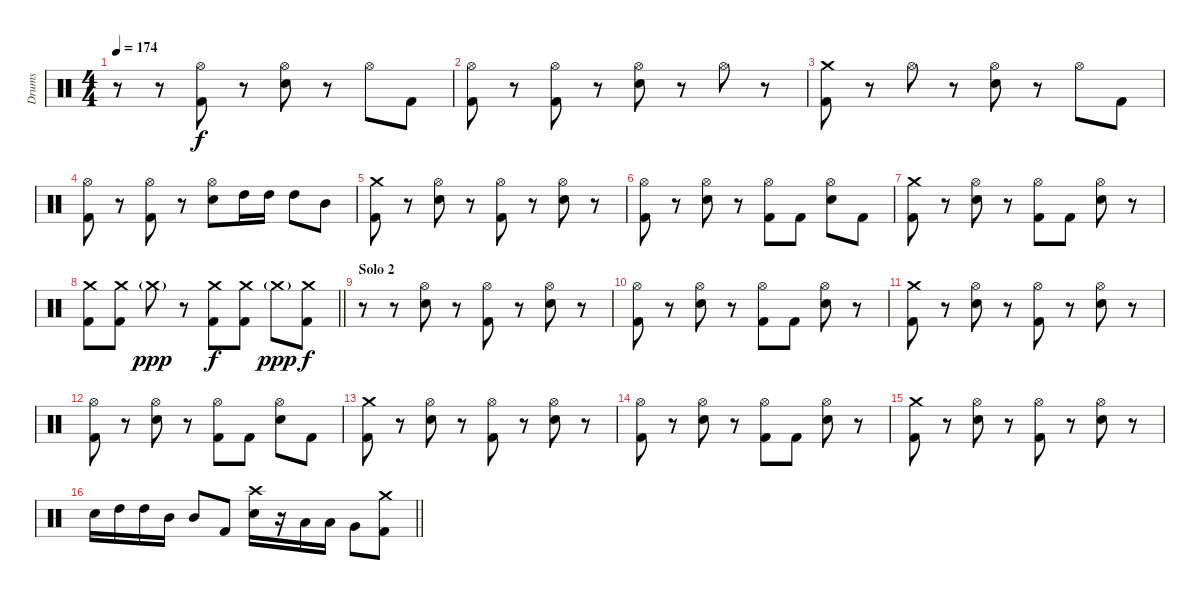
\track ("Drums" "Drums") {instrument percussion}
\staff {score}
\articulation defaults
\ts (4 4)
\tempo 174
\clef neutral
\ks c
r.8{dy f} r.8 ("Hi-Hat (open)" "Kick (hit) 2").8 r.8 ("Hi-Hat (open)" "Electric Snare (hit)").8 r.8 "Hi-Hat (open)".8 "Kick (hit) 2".8 |
("Hi-Hat (open)" "Kick (hit) 2").8 r.8 ("Hi-Hat (open)" "Kick (hit) 2").8 r.8 ("Hi-Hat (open)" "Electric Snare (hit)").8 r.8 "Hi-Hat (open)".8 r.8 |
("Crash medium (hit)" "Kick (hit) 2").8 r.8 "Hi-Hat (open)".8 r.8 ("Hi-Hat (open)" "Electric Snare (hit)").8 r.8 "Hi-Hat (open)".8 "Kick (hit) 2".8 |
("Hi-Hat (open)" "Kick (hit) 2").8 r.8 ("Hi-Hat (open)" "Kick (hit) 2").8 r.8 ("Hi-Hat (open)" "Electric Snare (hit)").8 "High Tom (hit)".16 "High Tom (hit)".16 "High Tom (hit)".8 "Mid Tom (hit)".8 |
("Crash medium (hit)" "Kick (hit) 2").8 r.8 ("Hi-Hat (open)" "Electric Snare (hit)").8 r.8 ("Hi-Hat (open)" "Kick (hit) 2").8 r.8 ("Hi-Hat (open)" "Electric Snare (hit)").8 r.8 |
("Hi-Hat (open)" "Kick (hit) 2").8 r.8 ("Hi-Hat (open)" "Electric Snare (hit)").8 r.8 ("Hi-Hat (open)" "Kick (hit) 2").8 "Kick (hit) 2".8 ("Hi-Hat (open)" "Electric Snare (hit)").8 "Kick (hit) 2".8 |
("Crash medium (hit)" "Kick (hit) 2").8 r.8 ("Hi-Hat (open)" "Electric Snare (hit)").8 r.8 ("Hi-Hat (open)" "Kick (hit) 2").8 "Kick (hit) 2".8 ("Hi-Hat (open)" "Electric Snare (hit)").8 r.8 |
\barLineRight lightlight
("Crash medium (hit)" "Kick (hit) 2").8 ("Crash medium (hit)" "Kick (hit) 2").8 "Crash medium (hit)"{g}.8{dy ppp} r.8 ("Crash medium (hit)" "Kick (hit) 2").8{dy f} ("Crash medium (hit)" "Kick (hit) 2").8 "Crash medium (hit)"{g}.8{dy ppp} ("Crash medium (hit)" "Kick (hit) 2").8{dy f} |
\section ("" "Solo 2")
r.8 r.8 ("Hi-Hat (open)" "Electric Snare (hit)").8 r.8 ("Hi-Hat (open)" "Kick (hit) 2").8 r.8 ("Hi-Hat (open)" "Electric Snare (hit)").8 r.8 |
("Hi-Hat (open)" "Kick (hit) 2").8 r.8 ("Hi-Hat (open)" "Electric Snare (hit)").8 r.8 ("Hi-Hat (open)" "Kick (hit) 2").8 "Kick (hit) 2".8 ("Hi-Hat (open)" "Electric Snare (hit)").8 r.8 |
("Crash medium (hit)" "Kick (hit) 2").8 r.8 ("Hi-Hat (open)" "Electric Snare (hit)").8 r.8 ("Hi-Hat (open)" "Kick (hit) 2").8 r.8 ("Hi-Hat (open)" "Electric Snare (hit)").8 r.8 |
("Hi-Hat (open)" "Kick (hit) 2").8 r.8 ("Hi-Hat (open)" "Electric Snare (hit)").8 r.8 ("Hi-Hat (open)" "Kick (hit) 2").8 "Kick (hit) 2".8 ("Hi-Hat (open)" "Electric Snare (hit)").8 "Kick (hit) 2".8 |
("Crash medium (hit)" "Kick (hit) 2").8 r.8 ("Hi-Hat (open)" "Electric Snare (hit)").8 r.8 ("Hi-Hat (open)" "Kick (hit) 2").8 r.8 ("Hi-Hat (open)" "Electric Snare (hit)").8 r.8 |
("Hi-Hat (open)" "Kick (hit) 2").8 r.8 ("Hi-Hat (open)" "Electric Snare (hit)").8 r.8 ("Hi-Hat (open)" "Kick (hit) 2").8 "Kick (hit) 2".8 ("Hi-Hat (open)" "Electric Snare (hit)").8 r.8 |
("Crash medium (hit)" "Kick (hit) 2").8 r.8 ("Hi-Hat (open)" "Electric Snare (hit)").8 r.8 ("Hi-Hat (open)" "Kick (hit) 2").8 r.8 ("Hi-Hat (open)" "Electric Snare (hit)").8 r.8 |
\barLineRight lightlight "Electric Snare (hit)".16 "High Tom (hit)".16 "High Tom (hit)".16 "Mid Tom (hit)".16 "Mid Tom (hit)".8 "Kick (hit) 2".8
("Crash high (hit)" "Electric Snare (hit)").16 r.16 "Low Tom (hit)".16 "Low Tom (hit)".16 "Very Low Tom (hit)".8 ("Crash medium (hit)" "Kick (hit) 2").8
